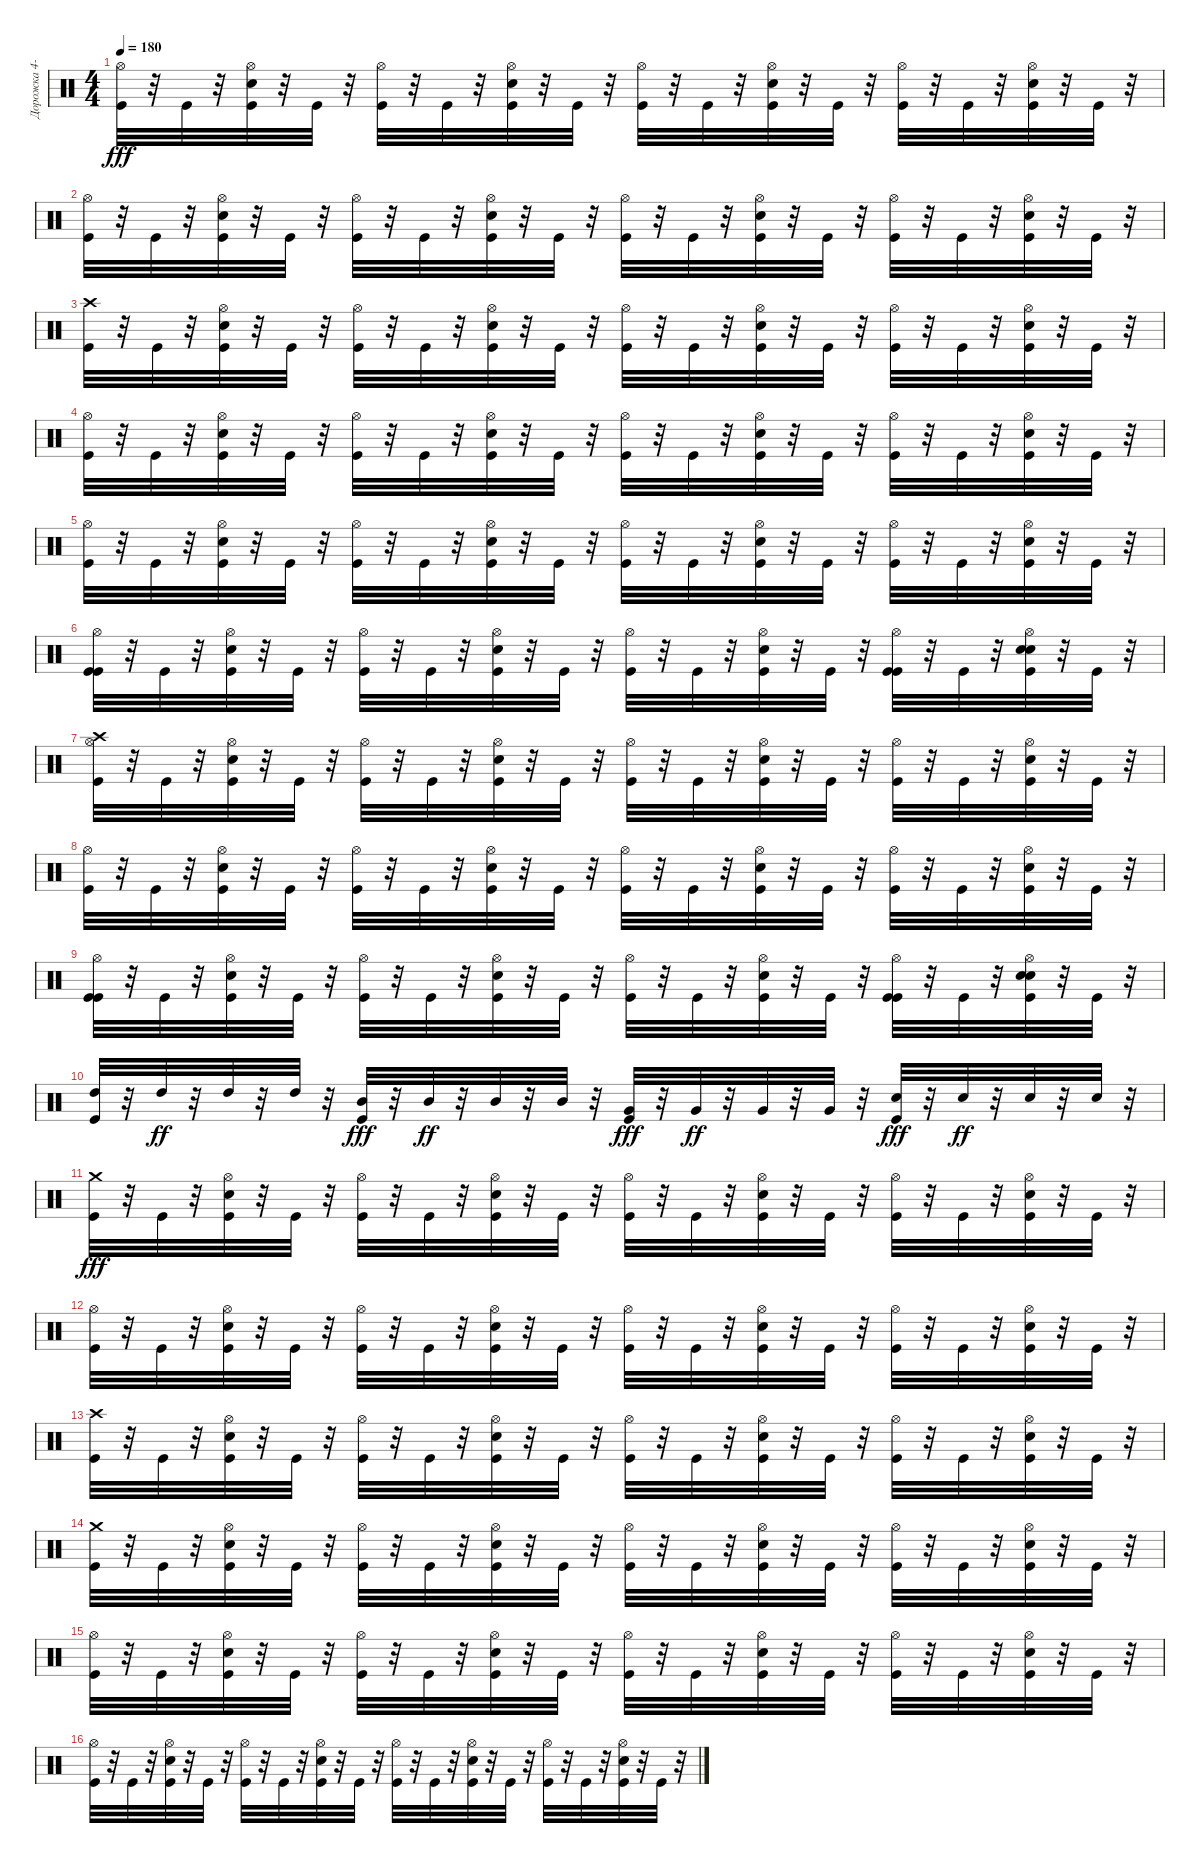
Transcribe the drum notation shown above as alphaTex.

\track ("Дорожка 4-10-11" "Дорожка 4-") {instrument percussion}
\staff {score}
\articulation defaults
\ts (4 4)
\tempo 180
\clef neutral
\ks c
("Hi-Hat (open)" "Kick (hit)").32{dy fff} r.32 "Kick (hit)".32 r.32 ("Hi-Hat (open)" "Snare (hit) 2" "Kick (hit)").32 r.32 "Kick (hit)".32 r.32 ("Hi-Hat (open)" "Kick (hit)").32 r.32 "Kick (hit)".32 r.32 ("Snare (hit) 2" "Hi-Hat (open)" "Kick (hit)").32 r.32 "Kick (hit)".32 r.32 ("Hi-Hat (open)" "Kick (hit)").32 r.32 "Kick (hit)".32 r.32 ("Hi-Hat (open)" "Snare (hit) 2" "Kick (hit)").32 r.32 "Kick (hit)".32 r.32 ("Hi-Hat (open)" "Kick (hit)").32 r.32 "Kick (hit)".32 r.32 ("Hi-Hat (open)" "Snare (hit) 2" "Kick (hit)").32 r.32 "Kick (hit)".32 r.32 |
("Hi-Hat (open)" "Kick (hit)").32 r.32 "Kick (hit)".32 r.32 ("Hi-Hat (open)" "Snare (hit) 2" "Kick (hit)").32 r.32 "Kick (hit)".32 r.32 ("Hi-Hat (open)" "Kick (hit)").32 r.32 "Kick (hit)".32 r.32 ("Snare (hit) 2" "Hi-Hat (open)" "Kick (hit)").32 r.32 "Kick (hit)".32 r.32 ("Hi-Hat (open)" "Kick (hit)").32 r.32 "Kick (hit)".32 r.32 ("Hi-Hat (open)" "Snare (hit) 2" "Kick (hit)").32 r.32 "Kick (hit)".32 r.32 ("Hi-Hat (open)" "Kick (hit)").32 r.32 "Kick (hit)".32 r.32 ("Hi-Hat (open)" "Snare (hit) 2" "Kick (hit)").32 r.32 "Kick (hit)".32 r.32 |
("Crash high (hit)" "Kick (hit)").32 r.32 "Kick (hit)".32 r.32 ("Hi-Hat (open)" "Snare (hit) 2" "Kick (hit)").32 r.32 "Kick (hit)".32 r.32 ("Hi-Hat (open)" "Kick (hit)").32 r.32 "Kick (hit)".32 r.32 ("Snare (hit) 2" "Hi-Hat (open)" "Kick (hit)").32 r.32 "Kick (hit)".32 r.32 ("Hi-Hat (open)" "Kick (hit)").32 r.32 "Kick (hit)".32 r.32 ("Hi-Hat (open)" "Snare (hit) 2" "Kick (hit)").32 r.32 "Kick (hit)".32 r.32 ("Hi-Hat (open)" "Kick (hit)").32 r.32 "Kick (hit)".32 r.32 ("Hi-Hat (open)" "Snare (hit) 2" "Kick (hit)").32 r.32 "Kick (hit)".32 r.32 |
("Hi-Hat (open)" "Kick (hit)").32 r.32 "Kick (hit)".32 r.32 ("Hi-Hat (open)" "Snare (hit) 2" "Kick (hit)").32 r.32 "Kick (hit)".32 r.32 ("Hi-Hat (open)" "Kick (hit)").32 r.32 "Kick (hit)".32 r.32 ("Snare (hit) 2" "Hi-Hat (open)" "Kick (hit)").32 r.32 "Kick (hit)".32 r.32 ("Hi-Hat (open)" "Kick (hit)").32 r.32 "Kick (hit)".32 r.32 ("Hi-Hat (open)" "Snare (hit) 2" "Kick (hit)").32 r.32 "Kick (hit)".32 r.32 ("Hi-Hat (open)" "Kick (hit)").32 r.32 "Kick (hit)".32 r.32 ("Hi-Hat (open)" "Snare (hit) 2" "Kick (hit)").32 r.32 "Kick (hit)".32 r.32 |
("Hi-Hat (open)" "Kick (hit)").32 r.32 "Kick (hit)".32 r.32 ("Hi-Hat (open)" "Snare (hit) 2" "Kick (hit)").32 r.32 "Kick (hit)".32 r.32 ("Hi-Hat (open)" "Kick (hit)").32 r.32 "Kick (hit)".32 r.32 ("Snare (hit) 2" "Hi-Hat (open)" "Kick (hit)").32 r.32 "Kick (hit)".32 r.32 ("Hi-Hat (open)" "Kick (hit)").32 r.32 "Kick (hit)".32 r.32 ("Hi-Hat (open)" "Snare (hit) 2" "Kick (hit)").32 r.32 "Kick (hit)".32 r.32 ("Hi-Hat (open)" "Kick (hit)").32 r.32 "Kick (hit)".32 r.32 ("Hi-Hat (open)" "Snare (hit) 2" "Kick (hit)").32 r.32 "Kick (hit)".32 r.32 |
("Hi-Hat (open)" "Kick (hit)" "Kick (hit)").32 r.32 "Kick (hit)".32 r.32 ("Hi-Hat (open)" "Snare (hit) 2" "Kick (hit)").32 r.32 "Kick (hit)".32 r.32 ("Hi-Hat (open)" "Kick (hit)").32 r.32 "Kick (hit)".32 r.32 ("Snare (hit) 2" "Hi-Hat (open)" "Kick (hit)").32 r.32 "Kick (hit)".32 r.32 ("Hi-Hat (open)" "Kick (hit)").32 r.32 "Kick (hit)".32 r.32 ("Hi-Hat (open)" "Snare (hit) 2" "Kick (hit)").32 r.32 "Kick (hit)".32 r.32 ("Hi-Hat (open)" "Kick (hit)" "Kick (hit)").32 r.32 "Kick (hit)".32 r.32 ("Snare (hit) 2" "Hi-Hat (open)" "Snare (hit) 2" "Kick (hit)").32 r.32 "Kick (hit)".32 r.32 |
("Crash high (hit)" "Hi-Hat (open)" "Kick (hit)").32 r.32 "Kick (hit)".32 r.32 ("Hi-Hat (open)" "Snare (hit) 2" "Kick (hit)").32 r.32 "Kick (hit)".32 r.32 ("Hi-Hat (open)" "Kick (hit)").32 r.32 "Kick (hit)".32 r.32 ("Snare (hit) 2" "Hi-Hat (open)" "Kick (hit)").32 r.32 "Kick (hit)".32 r.32 ("Hi-Hat (open)" "Kick (hit)").32 r.32 "Kick (hit)".32 r.32 ("Hi-Hat (open)" "Snare (hit) 2" "Kick (hit)").32 r.32 "Kick (hit)".32 r.32 ("Hi-Hat (open)" "Kick (hit)").32 r.32 "Kick (hit)".32 r.32 ("Hi-Hat (open)" "Snare (hit) 2" "Kick (hit)").32 r.32 "Kick (hit)".32 r.32 |
("Hi-Hat (open)" "Kick (hit)").32 r.32 "Kick (hit)".32 r.32 ("Hi-Hat (open)" "Snare (hit) 2" "Kick (hit)").32 r.32 "Kick (hit)".32 r.32 ("Hi-Hat (open)" "Kick (hit)").32 r.32 "Kick (hit)".32 r.32 ("Snare (hit) 2" "Hi-Hat (open)" "Kick (hit)").32 r.32 "Kick (hit)".32 r.32 ("Hi-Hat (open)" "Kick (hit)").32 r.32 "Kick (hit)".32 r.32 ("Hi-Hat (open)" "Snare (hit) 2" "Kick (hit)").32 r.32 "Kick (hit)".32 r.32 ("Hi-Hat (open)" "Kick (hit)").32 r.32 "Kick (hit)".32 r.32 ("Hi-Hat (open)" "Snare (hit) 2" "Kick (hit)").32 r.32 "Kick (hit)".32 r.32 |
("Hi-Hat (open)" "Kick (hit)" "Kick (hit)").32 r.32 "Kick (hit)".32 r.32 ("Hi-Hat (open)" "Snare (hit) 2" "Kick (hit)").32 r.32 "Kick (hit)".32 r.32 ("Hi-Hat (open)" "Kick (hit)").32 r.32 "Kick (hit)".32 r.32 ("Snare (hit) 2" "Hi-Hat (open)" "Kick (hit)").32 r.32 "Kick (hit)".32 r.32 ("Hi-Hat (open)" "Kick (hit)").32 r.32 "Kick (hit)".32 r.32 ("Hi-Hat (open)" "Snare (hit) 2" "Kick (hit)").32 r.32 "Kick (hit)".32 r.32 ("Hi-Hat (open)" "Kick (hit)" "Kick (hit)").32 r.32 "Kick (hit)".32 r.32 ("Snare (hit) 2" "Hi-Hat (open)" "Snare (hit) 2" "Kick (hit)").32 r.32 "Kick (hit)".32 r.32 |
("High Tom (hit)" "Kick (hit)").32 r.32 "High Tom (hit)".32{dy ff} r.32 "High Tom (hit)".32 r.32 "High Tom (hit)".32 r.32 ("Mid Tom (hit)" "Kick (hit)").32{dy fff} r.32 "Mid Tom (hit)".32{dy ff} r.32 "Mid Tom (hit)".32 r.32 "Mid Tom (hit)".32 r.32 ("Very Low Tom (hit)" "Kick (hit)").32{dy fff} r.32 "Very Low Tom (hit)".32{dy ff} r.32 "Very Low Tom (hit)".32 r.32 "Very Low Tom (hit)".32 r.32 ("Electric Snare (hit)" "Kick (hit)").32{dy fff} r.32 "Electric Snare (hit)".32{dy ff} r.32 "Electric Snare (hit)".32 r.32 "Electric Snare (hit)".32 r.32 |
("Crash medium (hit)" "Kick (hit)").32{dy fff} r.32 "Kick (hit)".32 r.32 ("Hi-Hat (open)" "Snare (hit) 2" "Kick (hit)").32 r.32 "Kick (hit)".32 r.32 ("Hi-Hat (open)" "Kick (hit)").32 r.32 "Kick (hit)".32 r.32 ("Snare (hit) 2" "Hi-Hat (open)" "Kick (hit)").32 r.32 "Kick (hit)".32 r.32 ("Hi-Hat (open)" "Kick (hit)").32 r.32 "Kick (hit)".32 r.32 ("Hi-Hat (open)" "Snare (hit) 2" "Kick (hit)").32 r.32 "Kick (hit)".32 r.32 ("Hi-Hat (open)" "Kick (hit)").32 r.32 "Kick (hit)".32 r.32 ("Hi-Hat (open)" "Snare (hit) 2" "Kick (hit)").32 r.32 "Kick (hit)".32 r.32 |
("Hi-Hat (open)" "Kick (hit)").32 r.32 "Kick (hit)".32 r.32 ("Hi-Hat (open)" "Snare (hit) 2" "Kick (hit)").32 r.32 "Kick (hit)".32 r.32 ("Hi-Hat (open)" "Kick (hit)").32 r.32 "Kick (hit)".32 r.32 ("Snare (hit) 2" "Hi-Hat (open)" "Kick (hit)").32 r.32 "Kick (hit)".32 r.32 ("Hi-Hat (open)" "Kick (hit)").32 r.32 "Kick (hit)".32 r.32 ("Hi-Hat (open)" "Snare (hit) 2" "Kick (hit)").32 r.32 "Kick (hit)".32 r.32 ("Hi-Hat (open)" "Kick (hit)").32 r.32 "Kick (hit)".32 r.32 ("Hi-Hat (open)" "Snare (hit) 2" "Kick (hit)").32 r.32 "Kick (hit)".32 r.32 |
("Crash high (hit)" "Kick (hit)").32 r.32 "Kick (hit)".32 r.32 ("Hi-Hat (open)" "Snare (hit) 2" "Kick (hit)").32 r.32 "Kick (hit)".32 r.32 ("Hi-Hat (open)" "Kick (hit)").32 r.32 "Kick (hit)".32 r.32 ("Snare (hit) 2" "Hi-Hat (open)" "Kick (hit)").32 r.32 "Kick (hit)".32 r.32 ("Hi-Hat (open)" "Kick (hit)").32 r.32 "Kick (hit)".32 r.32 ("Hi-Hat (open)" "Snare (hit) 2" "Kick (hit)").32 r.32 "Kick (hit)".32 r.32 ("Hi-Hat (open)" "Kick (hit)").32 r.32 "Kick (hit)".32 r.32 ("Hi-Hat (open)" "Snare (hit) 2" "Kick (hit)").32 r.32 "Kick (hit)".32 r.32 |
("Crash medium (hit)" "Kick (hit)").32 r.32 "Kick (hit)".32 r.32 ("Hi-Hat (open)" "Snare (hit) 2" "Kick (hit)").32 r.32 "Kick (hit)".32 r.32 ("Hi-Hat (open)" "Kick (hit)").32 r.32 "Kick (hit)".32 r.32 ("Snare (hit) 2" "Hi-Hat (open)" "Kick (hit)").32 r.32 "Kick (hit)".32 r.32 ("Hi-Hat (open)" "Kick (hit)").32 r.32 "Kick (hit)".32 r.32 ("Hi-Hat (open)" "Snare (hit) 2" "Kick (hit)").32 r.32 "Kick (hit)".32 r.32 ("Hi-Hat (open)" "Kick (hit)").32 r.32 "Kick (hit)".32 r.32 ("Hi-Hat (open)" "Snare (hit) 2" "Kick (hit)").32 r.32 "Kick (hit)".32 r.32 |
("Hi-Hat (open)" "Kick (hit)").32 r.32 "Kick (hit)".32 r.32 ("Hi-Hat (open)" "Snare (hit) 2" "Kick (hit)").32 r.32 "Kick (hit)".32 r.32 ("Hi-Hat (open)" "Kick (hit)").32 r.32 "Kick (hit)".32 r.32 ("Snare (hit) 2" "Hi-Hat (open)" "Kick (hit)").32 r.32 "Kick (hit)".32 r.32 ("Hi-Hat (open)" "Kick (hit)").32 r.32 "Kick (hit)".32 r.32 ("Hi-Hat (open)" "Snare (hit) 2" "Kick (hit)").32 r.32 "Kick (hit)".32 r.32 ("Hi-Hat (open)" "Kick (hit)").32 r.32 "Kick (hit)".32 r.32 ("Hi-Hat (open)" "Snare (hit) 2" "Kick (hit)").32 r.32 "Kick (hit)".32 r.32 |
("Hi-Hat (open)" "Kick (hit)").32 r.32 "Kick (hit)".32 r.32 ("Hi-Hat (open)" "Snare (hit) 2" "Kick (hit)").32 r.32 "Kick (hit)".32 r.32 ("Hi-Hat (open)" "Kick (hit)").32 r.32 "Kick (hit)".32 r.32 ("Snare (hit) 2" "Hi-Hat (open)" "Kick (hit)").32 r.32 "Kick (hit)".32 r.32 ("Hi-Hat (open)" "Kick (hit)").32 r.32 "Kick (hit)".32 r.32 ("Hi-Hat (open)" "Snare (hit) 2" "Kick (hit)").32 r.32 "Kick (hit)".32 r.32 ("Hi-Hat (open)" "Kick (hit)").32 r.32 "Kick (hit)".32 r.32 ("Hi-Hat (open)" "Snare (hit) 2" "Kick (hit)").32 r.32 "Kick (hit)".32 r.32
